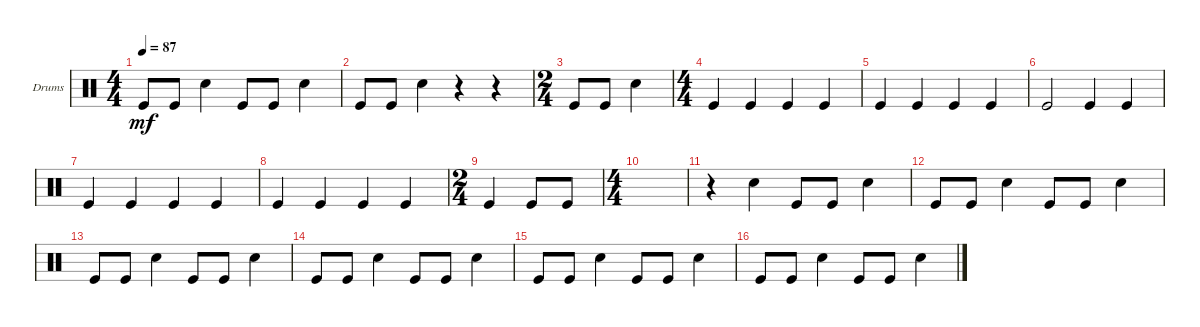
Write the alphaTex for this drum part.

\defaultSystemsLayout 4
\bracketExtendMode groupsimilarinstruments
\firstSystemTrackNameOrientation horizontal
\otherSystemsTrackNameOrientation horizontal
\track ("Body percussion (see notes)" "Drums") {instrument percussion}
\staff {score}
\articulation defaults
\ts (4 4)
\tempo 87
\clef neutral
\ks c "Kick (hit)".8{dy mf} "Kick (hit)".8 "Snare (hit) 2".4 "Kick (hit)".8 "Kick (hit)".8 "Snare (hit) 2".4
|
"Kick (hit)".8 "Kick (hit)".8 "Snare (hit) 2".4 r.4 r.4 |
\ts (2 4)
"Kick (hit)".8 "Kick (hit)".8 "Snare (hit) 2".4 |
\ts (4 4)
"Kick (hit)".4 "Kick (hit)".4 "Kick (hit)".4 "Kick (hit)".4 |
"Kick (hit)".4 "Kick (hit)".4 "Kick (hit)".4 "Kick (hit)".4 |
"Kick (hit)".2 "Kick (hit)".4 "Kick (hit)".4 |
"Kick (hit)".4 "Kick (hit)".4 "Kick (hit)".4 "Kick (hit)".4 |
"Kick (hit)".4 "Kick (hit)".4 "Kick (hit)".4 "Kick (hit)".4 |
\ts (2 4)
"Kick (hit)".4 "Kick (hit)".8 "Kick (hit)".8 |
\ts (4 4)
|
r.4 "Snare (hit) 2".4 "Kick (hit)".8 "Kick (hit)".8 "Snare (hit) 2".4 |
"Kick (hit)".8 "Kick (hit)".8 "Snare (hit) 2".4 "Kick (hit)".8 "Kick (hit)".8 "Snare (hit) 2".4 |
"Kick (hit)".8 "Kick (hit)".8 "Snare (hit) 2".4 "Kick (hit)".8 "Kick (hit)".8 "Snare (hit) 2".4 |
"Kick (hit)".8 "Kick (hit)".8 "Snare (hit) 2".4 "Kick (hit)".8 "Kick (hit)".8 "Snare (hit) 2".4 |
"Kick (hit)".8 "Kick (hit)".8 "Snare (hit) 2".4 "Kick (hit)".8 "Kick (hit)".8 "Snare (hit) 2".4 |
"Kick (hit)".8 "Kick (hit)".8 "Snare (hit) 2".4 "Kick (hit)".8 "Kick (hit)".8 "Snare (hit) 2".4
